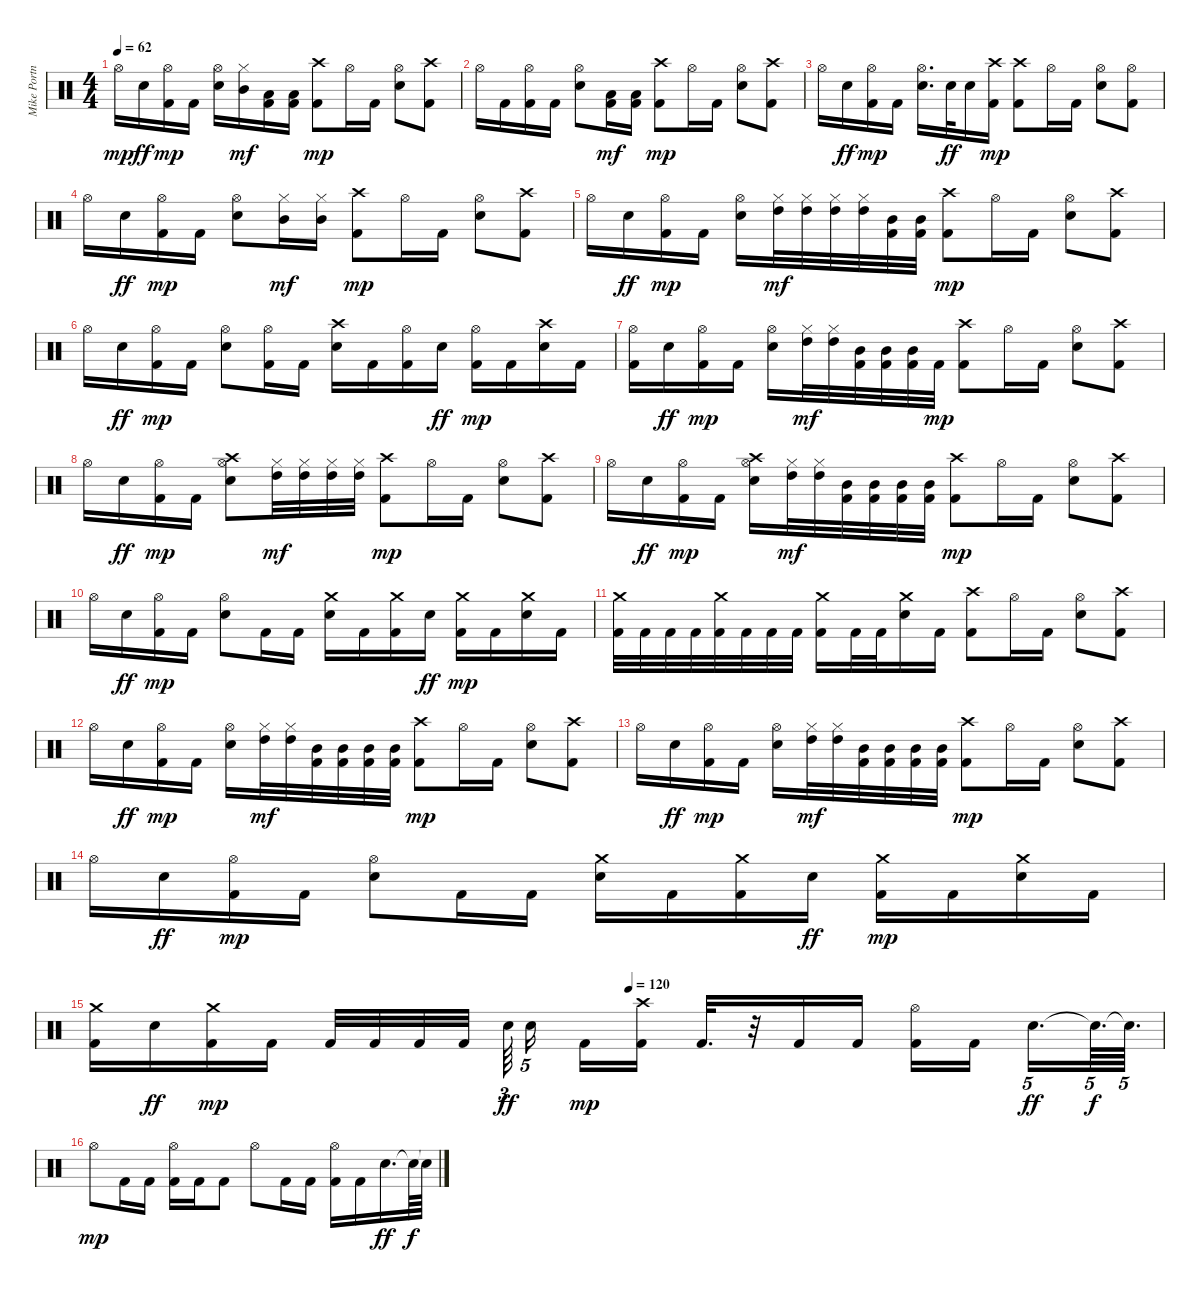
\track ("Mike Portnoy" "Mike Portn") {instrument percussion}
\staff {score}
\articulation defaults
\ts (4 4)
\tempo 62
\clef neutral
\ks c "Hi-Hat (open)".16{dy mp} "Electric Snare (hit)".16{dy ff}
("Kick (hit) 2" "Hi-Hat (open)").16{dy mp} "Kick (hit) 2".16 ("Electric Snare (hit)" "Hi-Hat (open)").16 ("Hi-Hat (closed)" "Mid Tom (hit)").16{dy mf} ("Kick (hit) 2" "Low Tom (hit)").16{balance 5} ("Kick (hit) 2" "Low Tom (hit)").16 ("Kick (hit) 2" "Crash high (hit)").8{dy mp} "Hi-Hat (open)".16 "Kick (hit) 2".16 ("Electric Snare (hit)" "Hi-Hat (open)").8 ("Kick (hit) 2" "Crash high (hit)").8 |
"Hi-Hat (open)".16 "Kick (hit) 2".16 ("Kick (hit) 2" "Hi-Hat (open)").16 "Kick (hit) 2".16 ("Electric Snare (hit)" "Hi-Hat (open)").8 ("Kick (hit) 2" "Low Tom (hit)").16{dy mf} ("Kick (hit) 2" "Low Tom (hit)").16 ("Kick (hit) 2" "Crash high (hit)").8{dy mp} "Hi-Hat (open)".16 "Kick (hit) 2".16 ("Electric Snare (hit)" "Hi-Hat (open)").8 ("Kick (hit) 2" "Crash high (hit)").8 |
"Hi-Hat (open)".16 "Electric Snare (hit)".16{dy ff} ("Kick (hit) 2" "Hi-Hat (open)").16{dy mp} "Kick (hit) 2".16 ("Electric Snare (hit)" "Hi-Hat (open)").16{d} "Electric Snare (hit)".32{dy ff} "Electric Snare (hit)".16 ("Kick (hit) 2" "Crash high (hit)").16{dy mp} ("Kick (hit) 2" "Crash high (hit)").8 "Hi-Hat (open)".16 "Kick (hit) 2".16 ("Electric Snare (hit)" "Hi-Hat (open)").8 ("Kick (hit) 2" "Hi-Hat (open)").8 |
"Hi-Hat (open)".16 "Electric Snare (hit)".16{dy ff} ("Kick (hit) 2" "Hi-Hat (open)").16{dy mp} "Kick (hit) 2".16 ("Electric Snare (hit)" "Hi-Hat (open)").8 ("Hi-Hat (closed)" "Mid Tom (hit)").16{dy mf balance 2} ("Hi-Hat (closed)" "Mid Tom (hit)").16 ("Kick (hit) 2" "Crash high (hit)").8{dy mp} "Hi-Hat (open)".16 "Kick (hit) 2".16 ("Electric Snare (hit)" "Hi-Hat (open)").8 ("Kick (hit) 2" "Crash high (hit)").8 |
"Hi-Hat (open)".16 "Electric Snare (hit)".16{dy ff} ("Kick (hit) 2" "Hi-Hat (open)").16{dy mp} "Kick (hit) 2".16 ("Electric Snare (hit)" "Hi-Hat (open)").16 ("Hi-Hat (closed)" "High Tom (hit)").32{dy mf} ("Hi-Hat (closed)" "High Tom (hit)").32 ("Hi-Hat (closed)" "High Tom (hit)").32 ("Hi-Hat (closed)" "High Tom (hit)").32 ("Kick (hit) 2" "Mid Tom (hit)").32{balance 5} ("Kick (hit) 2" "Mid Tom (hit)").32 ("Kick (hit) 2" "Crash high (hit)").8{dy mp} "Hi-Hat (open)".16 "Kick (hit) 2".16 ("Electric Snare (hit)" "Hi-Hat (open)").8 ("Kick (hit) 2" "Crash high (hit)").8 |
"Hi-Hat (open)".16 "Electric Snare (hit)".16{dy ff} ("Kick (hit) 2" "Hi-Hat (open)").16{dy mp} "Kick (hit) 2".16 ("Electric Snare (hit)" "Hi-Hat (open)").8 ("Kick (hit) 2" "Hi-Hat (open)").16 "Kick (hit) 2".16 ("Electric Snare (hit)" "Crash high (hit)").16 "Kick (hit) 2".16 ("Kick (hit) 2" "Hi-Hat (open)").16 "Electric Snare (hit)".16{dy ff} ("Kick (hit) 2" "Hi-Hat (open)").16{dy mp} "Kick (hit) 2".16 ("Electric Snare (hit)" "Crash high (hit)").16 "Kick (hit) 2".16 |
("Kick (hit) 2" "Hi-Hat (open)").16 "Electric Snare (hit)".16{dy ff} ("Kick (hit) 2" "Hi-Hat (open)").16{dy mp} "Kick (hit) 2".16 ("Electric Snare (hit)" "Hi-Hat (open)").16 ("Hi-Hat (closed)" "High Tom (hit)").32{dy mf balance 2} ("Hi-Hat (closed)" "High Tom (hit)").32 ("Kick (hit) 2" "Mid Tom (hit)").32{balance 5} ("Kick (hit) 2" "Mid Tom (hit)").32 ("Kick (hit) 2" "Mid Tom (hit)").32 "Kick (hit) 2".32{dy mp} ("Kick (hit) 2" "Crash high (hit)").8 "Hi-Hat (open)".16 "Kick (hit) 2".16 ("Electric Snare (hit)" "Hi-Hat (open)").8 ("Kick (hit) 2" "Crash high (hit)").8 |
"Hi-Hat (open)".16 "Electric Snare (hit)".16{dy ff} ("Kick (hit) 2" "Hi-Hat (open)").16{dy mp} "Kick (hit) 2".16 ("Electric Snare (hit)" "Hi-Hat (open)" "Crash high (hit)").8 ("Hi-Hat (closed)" "High Tom (hit)").32{dy mf balance 2} ("Hi-Hat (closed)" "High Tom (hit)").32 ("Hi-Hat (closed)" "High Tom (hit)").32 ("Hi-Hat (closed)" "High Tom (hit)").32 ("Kick (hit) 2" "Crash high (hit)").8{dy mp} "Hi-Hat (open)".16 "Kick (hit) 2".16 ("Electric Snare (hit)" "Hi-Hat (open)").8 ("Kick (hit) 2" "Crash high (hit)").8 |
"Hi-Hat (open)".16 "Electric Snare (hit)".16{dy ff} ("Kick (hit) 2" "Hi-Hat (open)").16{dy mp} "Kick (hit) 2".16 ("Electric Snare (hit)" "Hi-Hat (open)" "Crash high (hit)").16 ("Hi-Hat (closed)" "High Tom (hit)").32{dy mf} ("Hi-Hat (closed)" "High Tom (hit)").32 ("Kick (hit) 2" "Mid Tom (hit)").32{balance 5} ("Kick (hit) 2" "Mid Tom (hit)").32 ("Kick (hit) 2" "Mid Tom (hit)").32 ("Kick (hit) 2" "Mid Tom (hit)").32 ("Kick (hit) 2" "Crash high (hit)").8{dy mp} "Hi-Hat (open)".16 "Kick (hit) 2".16 ("Electric Snare (hit)" "Hi-Hat (open)").8 ("Kick (hit) 2" "Crash high (hit)").8 |
"Hi-Hat (open)".16 "Electric Snare (hit)".16{dy ff} ("Kick (hit) 2" "Hi-Hat (open)").16{dy mp} "Kick (hit) 2".16 ("Electric Snare (hit)" "Hi-Hat (open)").8 "Kick (hit) 2".16 "Kick (hit) 2".16 ("Electric Snare (hit)" "Crash medium (hit)").16 "Kick (hit) 2".16 ("Kick (hit) 2" "Crash medium (hit)").16 "Electric Snare (hit)".16{dy ff} ("Kick (hit) 2" "Crash medium (hit)").16{dy mp} "Kick (hit) 2".16 ("Electric Snare (hit)" "Crash medium (hit)").16 "Kick (hit) 2".16 |
("Kick (hit) 2" "Crash medium (hit)").32 "Kick (hit) 2".32 "Kick (hit) 2".32 "Kick (hit) 2".32 ("Kick (hit) 2" "Crash medium (hit)").32 "Kick (hit) 2".32 "Kick (hit) 2".32 "Kick (hit) 2".32 ("Kick (hit) 2" "Crash medium (hit)").16 "Kick (hit) 2".32 "Kick (hit) 2".32 ("Electric Snare (hit)" "Crash medium (hit)").16 "Kick (hit) 2".16 ("Kick (hit) 2" "Crash high (hit)").8 "Hi-Hat (open)".16 "Kick (hit) 2".16 ("Electric Snare (hit)" "Hi-Hat (open)").8 ("Kick (hit) 2" "Crash high (hit)").8 |
"Hi-Hat (open)".16 "Electric Snare (hit)".16{dy ff} ("Kick (hit) 2" "Hi-Hat (open)").16{dy mp} "Kick (hit) 2".16 ("Electric Snare (hit)" "Hi-Hat (open)").16 ("Hi-Hat (closed)" "High Tom (hit)").32{dy mf balance 2} ("Hi-Hat (closed)" "High Tom (hit)").32 ("Kick (hit) 2" "Mid Tom (hit)").32{balance 5} ("Kick (hit) 2" "Mid Tom (hit)").32 ("Kick (hit) 2" "Mid Tom (hit)").32 ("Kick (hit) 2" "Mid Tom (hit)").32 ("Kick (hit) 2" "Crash high (hit)").8{dy mp} "Hi-Hat (open)".16 "Kick (hit) 2".16 ("Electric Snare (hit)" "Hi-Hat (open)").8 ("Kick (hit) 2" "Crash high (hit)").8 |
"Hi-Hat (open)".16 "Electric Snare (hit)".16{dy ff} ("Kick (hit) 2" "Hi-Hat (open)").16{dy mp} "Kick (hit) 2".16 ("Electric Snare (hit)" "Hi-Hat (open)").16 ("Hi-Hat (closed)" "High Tom (hit)").32{dy mf balance 2} ("Hi-Hat (closed)" "High Tom (hit)").32 ("Kick (hit) 2" "Mid Tom (hit)").32{balance 5} ("Kick (hit) 2" "Mid Tom (hit)").32 ("Kick (hit) 2" "Mid Tom (hit)").32 ("Kick (hit) 2" "Mid Tom (hit)").32 ("Kick (hit) 2" "Crash high (hit)").8{dy mp} "Hi-Hat (open)".16 "Kick (hit) 2".16 ("Electric Snare (hit)" "Hi-Hat (open)").8 ("Kick (hit) 2" "Crash high (hit)").8 |
"Hi-Hat (open)".16 "Electric Snare (hit)".16{dy ff} ("Kick (hit) 2" "Hi-Hat (open)").16{dy mp} "Kick (hit) 2".16 ("Electric Snare (hit)" "Hi-Hat (open)").8 "Kick (hit) 2".16 "Kick (hit) 2".16 ("Electric Snare (hit)" "Crash medium (hit)").16 "Kick (hit) 2".16 ("Kick (hit) 2" "Crash medium (hit)").16 "Electric Snare (hit)".16{dy ff} ("Kick (hit) 2" "Crash medium (hit)").16{dy mp} "Kick (hit) 2".16 ("Electric Snare (hit)" "Crash medium (hit)").16 "Kick (hit) 2".16 |
\tempo (120 0.5)
("Kick (hit) 2" "Crash medium (hit)").16 "Electric Snare (hit)".16{dy ff} ("Kick (hit) 2" "Crash medium (hit)").16{dy mp} "Kick (hit) 2".16 "Kick (hit) 2".32 "Kick (hit) 2".32 "Kick (hit) 2".32 "Kick (hit) 2".32 "Electric Snare (hit)".64{tu (3 2) dy ff} "Electric Snare (hit)".16{tu (5 4)} "Kick (hit) 2".16{dy mp} ("Kick (hit) 2" "Crash high (hit)").16 "Kick (hit) 2".32{d} r.32 "Kick (hit) 2".16 "Kick (hit) 2".16 ("Kick (hit) 2" "Hi-Hat (open)").16 "Kick (hit) 2".16 "Electric Snare (hit)".16{d tu (5 4) dy ff} "Snare (hit)"{t}.64{d tu (5 4) dy f} "Snare (hit)"{t}.64{d tu (5 4)} |
"Hi-Hat (open)".8{dy mp} "Kick (hit) 2".16 "Kick (hit) 2".16 ("Kick (hit) 2" "Hi-Hat (open)").16 "Kick (hit) 2".16 "Kick (hit) 2".8 "Hi-Hat (open)".8 "Kick (hit) 2".16 "Kick (hit) 2".16 ("Kick (hit) 2" "Hi-Hat (open)").16 "Kick (hit) 2".16 "Electric Snare (hit)".16{d dy ff} "Snare (hit)"{t}.64{dy f} "Snare (hit)"{t}.64
